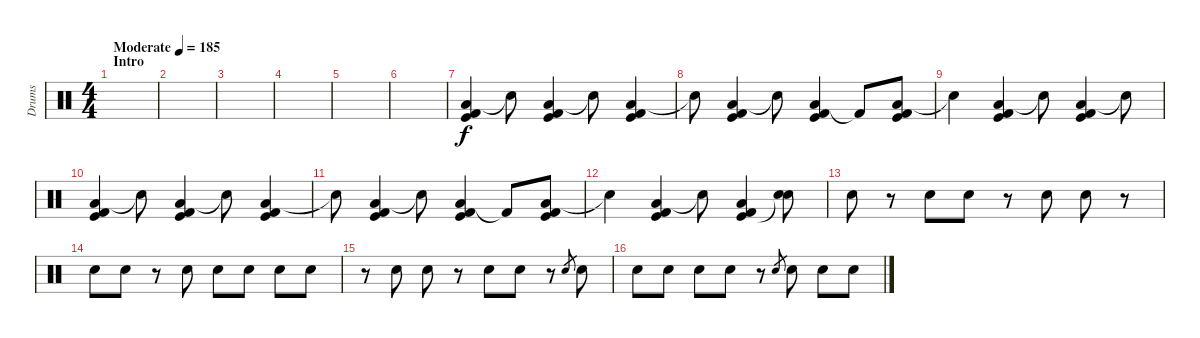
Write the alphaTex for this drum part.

\track ("Drums" "Drums") {instrument percussion}
\staff {score}
\articulation defaults
\ts (4 4)
\section ("" "Intro")
\tempo (185 "Moderate")
\clef neutral
\ks c
|
|
|
|
|
|
("Low Floor Tom (hit)" "Kick (hit)" "Kick (hit) 2").4 "Snare (hit)"{t}.8 ("Low Floor Tom (hit)" "Kick (hit)" "Kick (hit) 2").4 "Snare (hit)"{t}.8 ("Low Floor Tom (hit)" "Kick (hit)" "Kick (hit) 2").4 |
"Snare (hit)"{t}.8 ("Low Floor Tom (hit)" "Kick (hit)" "Kick (hit) 2").4 "Snare (hit)"{t}.8 ("Low Floor Tom (hit)" "Kick (hit)" "Kick (hit) 2").4 "Kick (hit) 2"{t}.8 ("Low Floor Tom (hit)" "Kick (hit)" "Kick (hit) 2").8 |
"Snare (hit)"{t}.4 ("Low Floor Tom (hit)" "Kick (hit)" "Kick (hit) 2").4 "Snare (hit)"{t}.8 ("Low Floor Tom (hit)" "Kick (hit)" "Kick (hit) 2").4 "Snare (hit)"{t}.8 |
("Low Floor Tom (hit)" "Kick (hit)" "Kick (hit) 2").4 "Snare (hit)"{t}.8 ("Low Floor Tom (hit)" "Kick (hit)" "Kick (hit) 2").4 "Snare (hit)"{t}.8 ("Low Floor Tom (hit)" "Kick (hit)" "Kick (hit) 2").4 |
"Snare (hit)"{t}.8 ("Low Floor Tom (hit)" "Kick (hit)" "Kick (hit) 2").4 "Snare (hit)"{t}.8 ("Low Floor Tom (hit)" "Kick (hit)" "Kick (hit) 2").4 "Kick (hit) 2"{t}.8 ("Low Floor Tom (hit)" "Kick (hit)" "Kick (hit) 2").8 |
"Snare (hit)"{t}.4 ("Low Floor Tom (hit)" "Kick (hit)" "Kick (hit) 2").4 "Snare (hit)"{t}.8 ("Low Floor Tom (hit)" "Kick (hit)" "Kick (hit) 2").4 ("Electric Snare (hit)" "Snare (hit)"{t}).8 |
"Electric Snare (hit)".8 r.8 "Electric Snare (hit)".8 "Electric Snare (hit)".8 r.8 "Electric Snare (hit)".8 "Electric Snare (hit)".8 r.8 |
"Electric Snare (hit)".8 "Electric Snare (hit)".8 r.8 "Electric Snare (hit)".8 "Electric Snare (hit)".8 "Electric Snare (hit)".8 "Electric Snare (hit)".8 "Electric Snare (hit)".8 |
r.8 "Electric Snare (hit)".8 "Electric Snare (hit)".8 r.8 "Electric Snare (hit)".8 "Electric Snare (hit)".8 r.8 "Electric Snare (hit)".8{gr} "Electric Snare (hit)".8 |
"Electric Snare (hit)".8 "Electric Snare (hit)".8 "Electric Snare (hit)".8 "Electric Snare (hit)".8 r.8 "Electric Snare (hit)".8{gr} "Electric Snare (hit)".8 "Electric Snare (hit)".8 "Electric Snare (hit)".8
